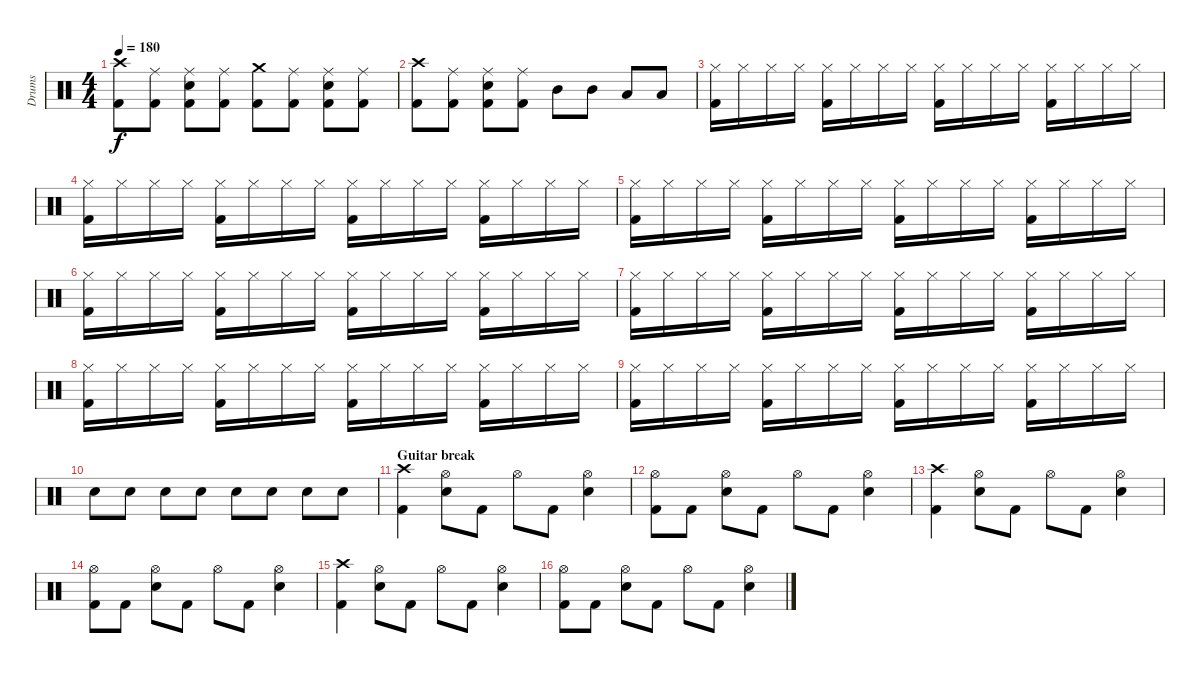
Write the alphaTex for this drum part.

\track ("Drums" "Drums") {instrument percussion}
\staff {score}
\articulation defaults
\ts (4 4)
\tempo 180
\clef neutral
\ks c
("Crash high (hit)" "Kick (hit) 2").8{dy f} ("Ride (middle)" "Kick (hit) 2").8 ("Ride (middle)" "Electric Snare (hit)" "Kick (hit) 2").8 ("Ride (middle)" "Kick (hit) 2").8 ("Crash medium (hit)" "Kick (hit) 2").8 ("Ride (middle)" "Kick (hit) 2").8 ("Ride (middle)" "Electric Snare (hit)" "Kick (hit) 2").8 ("Ride (middle)" "Kick (hit) 2").8 |
("Crash high (hit)" "Kick (hit) 2").8 ("Ride (middle)" "Kick (hit) 2").8 ("Ride (middle)" "Electric Snare (hit)" "Kick (hit) 2").8 ("Ride (middle)" "Kick (hit) 2").8 "Mid Tom (hit)".8 "Mid Tom (hit)".8 "Low Tom (hit)".8 "Low Tom (hit)".8 |
("Hi-Hat (closed)" "Kick (hit) 2").16 "Hi-Hat (closed)".16 "Hi-Hat (closed)".16 "Hi-Hat (closed)".16 ("Hi-Hat (closed)" "Kick (hit) 2").16 "Hi-Hat (closed)".16 "Hi-Hat (closed)".16 "Hi-Hat (closed)".16 ("Hi-Hat (closed)" "Kick (hit) 2").16 "Hi-Hat (closed)".16 "Hi-Hat (closed)".16 "Hi-Hat (closed)".16 ("Hi-Hat (closed)" "Kick (hit) 2").16 "Hi-Hat (closed)".16 "Hi-Hat (closed)".16 "Hi-Hat (closed)".16 |
("Hi-Hat (closed)" "Kick (hit) 2").16 "Hi-Hat (closed)".16 "Hi-Hat (closed)".16 "Hi-Hat (closed)".16 ("Hi-Hat (closed)" "Kick (hit) 2").16 "Hi-Hat (closed)".16 "Hi-Hat (closed)".16 "Hi-Hat (closed)".16 ("Hi-Hat (closed)" "Kick (hit) 2").16 "Hi-Hat (closed)".16 "Hi-Hat (closed)".16 "Hi-Hat (closed)".16 ("Hi-Hat (closed)" "Kick (hit) 2").16 "Hi-Hat (closed)".16 "Hi-Hat (closed)".16 "Hi-Hat (closed)".16 |
("Hi-Hat (closed)" "Kick (hit) 2").16 "Hi-Hat (closed)".16 "Hi-Hat (closed)".16 "Hi-Hat (closed)".16 ("Hi-Hat (closed)" "Kick (hit) 2").16 "Hi-Hat (closed)".16 "Hi-Hat (closed)".16 "Hi-Hat (closed)".16 ("Hi-Hat (closed)" "Kick (hit) 2").16 "Hi-Hat (closed)".16 "Hi-Hat (closed)".16 "Hi-Hat (closed)".16 ("Hi-Hat (closed)" "Kick (hit) 2").16 "Hi-Hat (closed)".16 "Hi-Hat (closed)".16 "Hi-Hat (closed)".16 |
("Hi-Hat (closed)" "Kick (hit) 2").16 "Hi-Hat (closed)".16 "Hi-Hat (closed)".16 "Hi-Hat (closed)".16 ("Hi-Hat (closed)" "Kick (hit) 2").16 "Hi-Hat (closed)".16 "Hi-Hat (closed)".16 "Hi-Hat (closed)".16 ("Hi-Hat (closed)" "Kick (hit) 2").16 "Hi-Hat (closed)".16 "Hi-Hat (closed)".16 "Hi-Hat (closed)".16 ("Hi-Hat (closed)" "Kick (hit) 2").16 "Hi-Hat (closed)".16 "Hi-Hat (closed)".16 "Hi-Hat (closed)".16 |
("Hi-Hat (closed)" "Kick (hit) 2").16 "Hi-Hat (closed)".16 "Hi-Hat (closed)".16 "Hi-Hat (closed)".16 ("Hi-Hat (closed)" "Kick (hit) 2").16 "Hi-Hat (closed)".16 "Hi-Hat (closed)".16 "Hi-Hat (closed)".16 ("Hi-Hat (closed)" "Kick (hit) 2").16 "Hi-Hat (closed)".16 "Hi-Hat (closed)".16 "Hi-Hat (closed)".16 ("Hi-Hat (closed)" "Kick (hit) 2").16 "Hi-Hat (closed)".16 "Hi-Hat (closed)".16 "Hi-Hat (closed)".16 |
("Hi-Hat (closed)" "Kick (hit) 2").16 "Hi-Hat (closed)".16 "Hi-Hat (closed)".16 "Hi-Hat (closed)".16 ("Hi-Hat (closed)" "Kick (hit) 2").16 "Hi-Hat (closed)".16 "Hi-Hat (closed)".16 "Hi-Hat (closed)".16 ("Hi-Hat (closed)" "Kick (hit) 2").16 "Hi-Hat (closed)".16 "Hi-Hat (closed)".16 "Hi-Hat (closed)".16 ("Hi-Hat (closed)" "Kick (hit) 2").16 "Hi-Hat (closed)".16 "Hi-Hat (closed)".16 "Hi-Hat (closed)".16 |
("Hi-Hat (closed)" "Kick (hit) 2").16 "Hi-Hat (closed)".16 "Hi-Hat (closed)".16 "Hi-Hat (closed)".16 ("Hi-Hat (closed)" "Kick (hit) 2").16 "Hi-Hat (closed)".16 "Hi-Hat (closed)".16 "Hi-Hat (closed)".16 ("Hi-Hat (closed)" "Kick (hit) 2").16 "Hi-Hat (closed)".16 "Hi-Hat (closed)".16 "Hi-Hat (closed)".16 ("Hi-Hat (closed)" "Kick (hit) 2").16 "Hi-Hat (closed)".16 "Hi-Hat (closed)".16 "Hi-Hat (closed)".16 |
"Electric Snare (hit)".8 "Electric Snare (hit)".8 "Electric Snare (hit)".8 "Electric Snare (hit)".8 "Electric Snare (hit)".8 "Electric Snare (hit)".8 "Electric Snare (hit)".8 "Electric Snare (hit)".8 |
\section ("" "Guitar break")
("Crash high (hit)" "Kick (hit) 2").4 ("Hi-Hat (open)" "Electric Snare (hit)").8 "Kick (hit) 2".8 "Hi-Hat (open)".8 "Kick (hit) 2".8 ("Hi-Hat (open)" "Electric Snare (hit)").4 |
("Hi-Hat (open)" "Kick (hit) 2").8 "Kick (hit) 2".8 ("Hi-Hat (open)" "Electric Snare (hit)").8 "Kick (hit) 2".8 "Hi-Hat (open)".8 "Kick (hit) 2".8 ("Hi-Hat (open)" "Electric Snare (hit)").4 |
("Crash high (hit)" "Kick (hit) 2").4 ("Hi-Hat (open)" "Electric Snare (hit)").8 "Kick (hit) 2".8 "Hi-Hat (open)".8 "Kick (hit) 2".8 ("Hi-Hat (open)" "Electric Snare (hit)").4 |
("Hi-Hat (open)" "Kick (hit) 2").8 "Kick (hit) 2".8 ("Hi-Hat (open)" "Electric Snare (hit)").8 "Kick (hit) 2".8 "Hi-Hat (open)".8 "Kick (hit) 2".8 ("Hi-Hat (open)" "Electric Snare (hit)").4 |
("Crash high (hit)" "Kick (hit) 2").4 ("Hi-Hat (open)" "Electric Snare (hit)").8 "Kick (hit) 2".8 "Hi-Hat (open)".8 "Kick (hit) 2".8 ("Hi-Hat (open)" "Electric Snare (hit)").4 |
("Hi-Hat (open)" "Kick (hit) 2").8 "Kick (hit) 2".8 ("Hi-Hat (open)" "Electric Snare (hit)").8 "Kick (hit) 2".8 "Hi-Hat (open)".8 "Kick (hit) 2".8 ("Hi-Hat (open)" "Electric Snare (hit)").4
